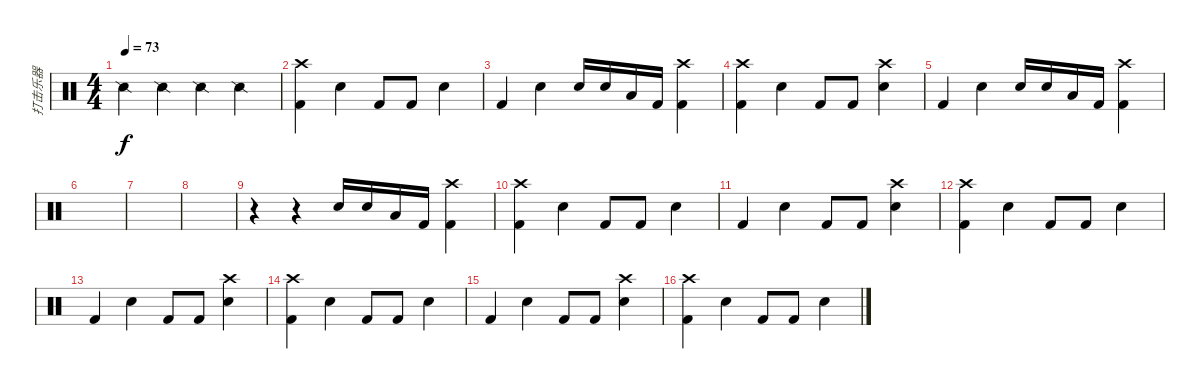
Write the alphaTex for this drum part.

\track ("打击乐器" "打击乐器") {instrument percussion}
\staff {score}
\articulation defaults
\ts (4 4)
\tempo 73
\clef neutral
\ks c "Snare (side stick) 2".4{dy f} "Snare (side stick) 2".4 "Snare (side stick) 2".4 "Snare (side stick) 2".4
|
("Kick (hit) 2" "Crash high (hit)").4 "Snare (hit) 2".4 "Kick (hit) 2".8 "Kick (hit) 2".8 "Snare (hit) 2".4 |
"Kick (hit) 2".4 "Snare (hit) 2".4 "Snare (hit) 2".16 "Electric Snare (hit)".16 "Low Floor Tom (hit)".16 "Kick (hit) 2".16 ("Kick (hit) 2" "Crash high (hit)").4 |
("Kick (hit) 2" "Crash high (hit)").4 "Snare (hit) 2".4 "Kick (hit) 2".8 "Kick (hit) 2".8 ("Snare (hit) 2" "Crash high (hit)").4 |
"Kick (hit) 2".4 "Snare (hit) 2".4 "Snare (hit) 2".16 "Electric Snare (hit)".16 "Low Floor Tom (hit)".16 "Kick (hit) 2".16 ("Kick (hit) 2" "Crash high (hit)").4 |
|
|
|
r.4 r.4 "Snare (hit) 2".16 "Electric Snare (hit)".16 "Low Floor Tom (hit)".16 "Kick (hit) 2".16 ("Kick (hit) 2" "Crash high (hit)").4 |
("Kick (hit) 2" "Crash high (hit)").4 "Snare (hit) 2".4 "Kick (hit) 2".8 "Kick (hit) 2".8 "Snare (hit) 2".4 |
"Kick (hit) 2".4 "Snare (hit) 2".4 "Kick (hit) 2".8 "Kick (hit) 2".8 ("Snare (hit) 2" "Crash high (hit)").4 |
("Kick (hit) 2" "Crash high (hit)").4 "Snare (hit) 2".4 "Kick (hit) 2".8 "Kick (hit) 2".8 "Snare (hit) 2".4 |
"Kick (hit) 2".4 "Snare (hit) 2".4 "Kick (hit) 2".8 "Kick (hit) 2".8 ("Snare (hit) 2" "Crash high (hit)").4 |
("Kick (hit) 2" "Crash high (hit)").4 "Snare (hit) 2".4 "Kick (hit) 2".8 "Kick (hit) 2".8 "Snare (hit) 2".4 |
"Kick (hit) 2".4 "Snare (hit) 2".4 "Kick (hit) 2".8 "Kick (hit) 2".8 ("Snare (hit) 2" "Crash high (hit)").4 |
("Kick (hit) 2" "Crash high (hit)").4 "Snare (hit) 2".4 "Kick (hit) 2".8 "Kick (hit) 2".8 "Snare (hit) 2".4
